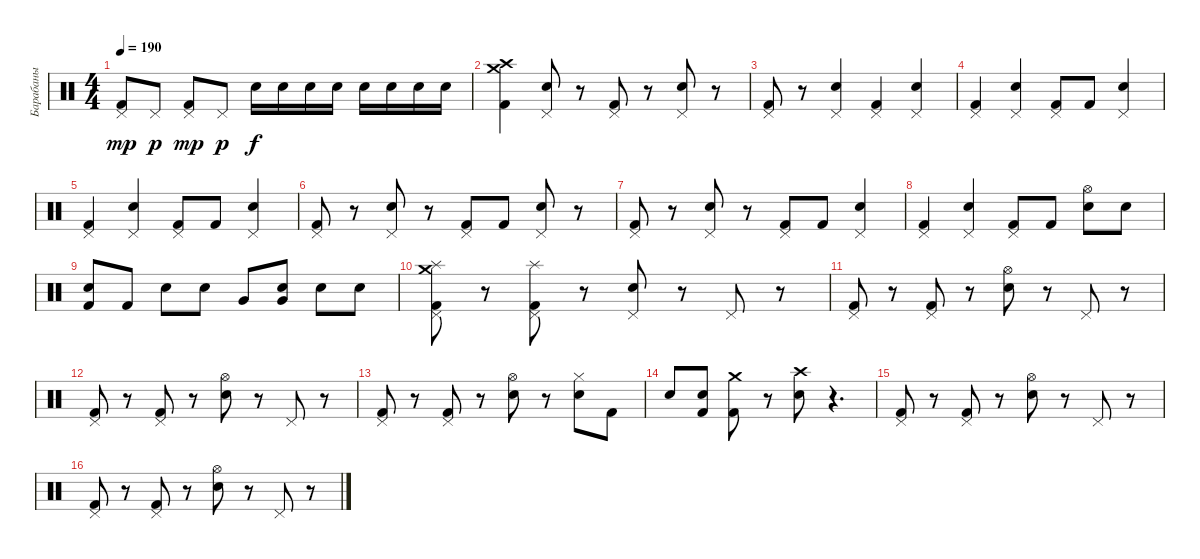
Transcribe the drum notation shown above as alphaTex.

\track ("Барабаны" "Барабаны") {instrument percussion}
\staff {score}
\articulation defaults
\ts (4 4)
\tempo 190
\clef neutral
\ks c
("Pedal Hi-Hat (hit)" "Kick (hit) 2").8{dy mp} "Pedal Hi-Hat (hit)".8{dy p} ("Pedal Hi-Hat (hit)" "Kick (hit) 2").8{dy mp} "Pedal Hi-Hat (hit)".8{dy p} "Electric Snare (hit)".16{dy f} "Electric Snare (hit)".16 "Electric Snare (hit)".16 "Electric Snare (hit)".16 "Electric Snare (hit)".16 "Electric Snare (hit)".16 "Electric Snare (hit)".16 "Electric Snare (hit)".16 |
("Crash medium (hit)" "Crash high (hit)" "Kick (hit) 2").4 ("Pedal Hi-Hat (hit)" "Electric Snare (hit)").8 r.8 ("Pedal Hi-Hat (hit)" "Kick (hit) 2").8 r.8 ("Pedal Hi-Hat (hit)" "Electric Snare (hit)").8 r.8 |
("Pedal Hi-Hat (hit)" "Kick (hit) 2").8 r.8 ("Pedal Hi-Hat (hit)" "Electric Snare (hit)").4 ("Pedal Hi-Hat (hit)" "Kick (hit) 2").4 ("Pedal Hi-Hat (hit)" "Electric Snare (hit)").4 |
("Pedal Hi-Hat (hit)" "Kick (hit) 2").4 ("Pedal Hi-Hat (hit)" "Electric Snare (hit)").4 ("Pedal Hi-Hat (hit)" "Kick (hit) 2").8 "Kick (hit) 2".8 ("Pedal Hi-Hat (hit)" "Electric Snare (hit)").4 |
("Pedal Hi-Hat (hit)" "Kick (hit) 2").4 ("Pedal Hi-Hat (hit)" "Electric Snare (hit)").4 ("Pedal Hi-Hat (hit)" "Kick (hit) 2").8 "Kick (hit) 2".8 ("Pedal Hi-Hat (hit)" "Electric Snare (hit)").4 |
("Pedal Hi-Hat (hit)" "Kick (hit) 2").8 r.8 ("Pedal Hi-Hat (hit)" "Electric Snare (hit)").8 r.8 ("Pedal Hi-Hat (hit)" "Kick (hit) 2").8 "Kick (hit) 2".8 ("Pedal Hi-Hat (hit)" "Electric Snare (hit)").8 r.8 |
("Pedal Hi-Hat (hit)" "Kick (hit) 2").8 r.8 ("Pedal Hi-Hat (hit)" "Electric Snare (hit)").8 r.8 ("Pedal Hi-Hat (hit)" "Kick (hit) 2").8 "Kick (hit) 2".8 ("Pedal Hi-Hat (hit)" "Electric Snare (hit)").4 |
("Pedal Hi-Hat (hit)" "Kick (hit) 2").4 ("Pedal Hi-Hat (hit)" "Electric Snare (hit)").4 ("Pedal Hi-Hat (hit)" "Kick (hit) 2").8 "Kick (hit) 2".8 ("Hi-Hat (open)" "Electric Snare (hit)").8 "Electric Snare (hit)".8 |
("Electric Snare (hit)" "Kick (hit) 2").8 "Kick (hit) 2".8 "Electric Snare (hit)".8 "Electric Snare (hit)".8 "Very Low Tom (hit)".8 ("Very Low Tom (hit)" "Electric Snare (hit)").8 "Electric Snare (hit)".8 "Electric Snare (hit)".8 |
("Pedal Hi-Hat (hit)" "Crash medium (hit)" "Splash (hit)" "Kick (hit) 2").8 r.8 ("Pedal Hi-Hat (hit)" "Splash (hit)" "Kick (hit) 2").8 r.8 ("Pedal Hi-Hat (hit)" "Electric Snare (hit)").8 r.8 "Pedal Hi-Hat (hit)".8 r.8 |
("Pedal Hi-Hat (hit)" "Kick (hit) 2").8 r.8 ("Pedal Hi-Hat (hit)" "Kick (hit) 2").8 r.8 ("Hi-Hat (open)" "Electric Snare (hit)").8 r.8 "Pedal Hi-Hat (hit)".8 r.8 |
("Pedal Hi-Hat (hit)" "Kick (hit) 2").8 r.8 ("Pedal Hi-Hat (hit)" "Kick (hit) 2").8 r.8 ("Hi-Hat (open)" "Electric Snare (hit)").8 r.8 "Pedal Hi-Hat (hit)".8 r.8 |
("Pedal Hi-Hat (hit)" "Kick (hit) 2").8 r.8 ("Pedal Hi-Hat (hit)" "Kick (hit) 2").8 r.8 ("Hi-Hat (open)" "Electric Snare (hit)").8 r.8 ("Hi-Hat (closed)" "Electric Snare (hit)").8 "Kick (hit) 2".8 |
"Electric Snare (hit)".8 ("Electric Snare (hit)" "Kick (hit) 2").8 ("Crash medium (hit)" "Kick (hit) 2").8 r.8 ("Crash high (hit)" "Electric Snare (hit)").8 r.4{d} |
("Pedal Hi-Hat (hit)" "Kick (hit) 2").8 r.8 ("Pedal Hi-Hat (hit)" "Kick (hit) 2").8 r.8 ("Hi-Hat (open)" "Electric Snare (hit)").8 r.8 "Pedal Hi-Hat (hit)".8 r.8 |
("Pedal Hi-Hat (hit)" "Kick (hit) 2").8 r.8 ("Pedal Hi-Hat (hit)" "Kick (hit) 2").8 r.8 ("Hi-Hat (open)" "Electric Snare (hit)").8 r.8 "Pedal Hi-Hat (hit)".8 r.8
